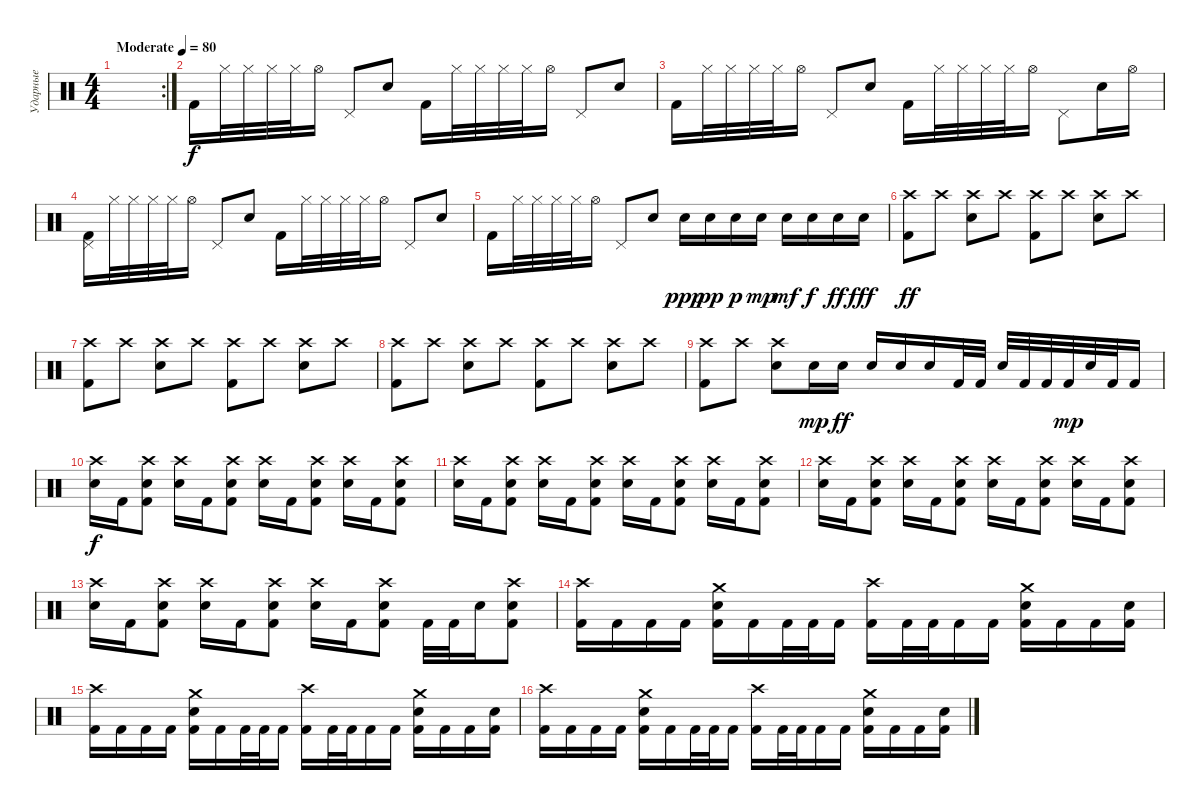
\track ("Ударные" "Ударные") {instrument percussion}
\staff {score}
\articulation defaults
\rc 2
\ts (4 4)
\tempo (80 "Moderate")
\clef neutral
\ks c
|
"Kick (hit) 2".16 "Hi-Hat (closed)".32 "Hi-Hat (closed)".32 "Hi-Hat (closed)".32 "Hi-Hat (closed)".32 "Hi-Hat (open)".16 "Pedal Hi-Hat (hit)".8 "Electric Snare (hit)".8 "Kick (hit) 2".16 "Hi-Hat (closed)".32 "Hi-Hat (closed)".32 "Hi-Hat (closed)".32 "Hi-Hat (closed)".32 "Hi-Hat (open)".16 "Pedal Hi-Hat (hit)".8 "Electric Snare (hit)".8 |
"Kick (hit) 2".16 "Hi-Hat (closed)".32 "Hi-Hat (closed)".32 "Hi-Hat (closed)".32 "Hi-Hat (closed)".32 "Hi-Hat (open)".16 "Pedal Hi-Hat (hit)".8 "Electric Snare (hit)".8 "Kick (hit) 2".16 "Hi-Hat (closed)".32 "Hi-Hat (closed)".32 "Hi-Hat (closed)".32 "Hi-Hat (closed)".32 "Hi-Hat (open)".16 "Pedal Hi-Hat (hit)".8 "Electric Snare (hit)".16 "Hi-Hat (open)".16 |
("Kick (hit) 2" "Pedal Hi-Hat (hit)").16 "Hi-Hat (closed)".32 "Hi-Hat (closed)".32 "Hi-Hat (closed)".32 "Hi-Hat (closed)".32 "Hi-Hat (open)".16 "Pedal Hi-Hat (hit)".8 "Electric Snare (hit)".8 "Kick (hit) 2".16 "Hi-Hat (closed)".32 "Hi-Hat (closed)".32 "Hi-Hat (closed)".32 "Hi-Hat (closed)".32 "Hi-Hat (open)".16 "Pedal Hi-Hat (hit)".8 "Electric Snare (hit)".8 |
"Kick (hit) 2".16 "Hi-Hat (closed)".32 "Hi-Hat (closed)".32 "Hi-Hat (closed)".32 "Hi-Hat (closed)".32 "Hi-Hat (open)".16 "Pedal Hi-Hat (hit)".8 "Electric Snare (hit)".8 "Snare (hit) 2".16{dy ppp} "Snare (hit) 2".16{dy pp} "Snare (hit) 2".16{dy p} "Snare (hit) 2".16{dy mp} "Snare (hit) 2".16{dy mf} "Snare (hit) 2".16{dy f} "Snare (hit) 2".16{dy ff} "Snare (hit) 2".16{dy fff} |
("Crash high (hit)" "Kick (hit) 2").8{dy ff} "Crash high (hit)".8 ("Crash high (hit)" "Electric Snare (hit)").8 "Crash high (hit)".8 ("Crash high (hit)" "Kick (hit) 2").8 "Crash high (hit)".8 ("Crash high (hit)" "Electric Snare (hit)").8 "Crash high (hit)".8 |
("Crash high (hit)" "Kick (hit) 2").8 "Crash high (hit)".8 ("Crash high (hit)" "Electric Snare (hit)").8 "Crash high (hit)".8 ("Crash high (hit)" "Kick (hit) 2").8 "Crash high (hit)".8 ("Crash high (hit)" "Electric Snare (hit)").8 "Crash high (hit)".8 |
("Crash high (hit)" "Kick (hit) 2").8 "Crash high (hit)".8 ("Crash high (hit)" "Electric Snare (hit)").8 "Crash high (hit)".8 ("Crash high (hit)" "Kick (hit) 2").8 "Crash high (hit)".8 ("Crash high (hit)" "Electric Snare (hit)").8 "Crash high (hit)".8 |
("Crash high (hit)" "Kick (hit) 2").8 "Crash high (hit)".8 ("Crash high (hit)" "Electric Snare (hit)").8 "Electric Snare (hit)".16{dy mp} "Electric Snare (hit)".16{dy ff} "Electric Snare (hit)".16 "Electric Snare (hit)".16 "Electric Snare (hit)".16 "Kick (hit) 2".32 "Kick (hit) 2".32 "Electric Snare (hit)".32 "Kick (hit) 2".32 "Kick (hit) 2".32 "Kick (hit) 2".32{dy mp} "Electric Snare (hit)".32 "Kick (hit) 2".32 "Kick (hit) 2".16 |
("Crash high (hit)" "Electric Snare (hit)").16{dy f} "Kick (hit) 2".16 ("Kick (hit) 2" "Crash high (hit)" "Electric Snare (hit)").8 ("Crash high (hit)" "Electric Snare (hit)").16 "Kick (hit) 2".16 ("Kick (hit) 2" "Crash high (hit)" "Electric Snare (hit)").8 ("Crash high (hit)" "Electric Snare (hit)").16 "Kick (hit) 2".16 ("Kick (hit) 2" "Crash high (hit)" "Electric Snare (hit)").8 ("Crash high (hit)" "Electric Snare (hit)").16 "Kick (hit) 2".16 ("Kick (hit) 2" "Crash high (hit)" "Electric Snare (hit)").8 |
("Crash high (hit)" "Electric Snare (hit)").16 "Kick (hit) 2".16 ("Kick (hit) 2" "Crash high (hit)" "Electric Snare (hit)").8 ("Crash high (hit)" "Electric Snare (hit)").16 "Kick (hit) 2".16 ("Kick (hit) 2" "Crash high (hit)" "Electric Snare (hit)").8 ("Crash high (hit)" "Electric Snare (hit)").16 "Kick (hit) 2".16 ("Kick (hit) 2" "Crash high (hit)" "Electric Snare (hit)").8 ("Crash high (hit)" "Electric Snare (hit)").16 "Kick (hit) 2".16 ("Kick (hit) 2" "Crash high (hit)" "Electric Snare (hit)").8 |
("Crash high (hit)" "Electric Snare (hit)").16 "Kick (hit) 2".16 ("Kick (hit) 2" "Crash high (hit)" "Electric Snare (hit)").8 ("Crash high (hit)" "Electric Snare (hit)").16 "Kick (hit) 2".16 ("Kick (hit) 2" "Crash high (hit)" "Electric Snare (hit)").8 ("Crash high (hit)" "Electric Snare (hit)").16 "Kick (hit) 2".16 ("Kick (hit) 2" "Crash high (hit)" "Electric Snare (hit)").8 ("Crash high (hit)" "Electric Snare (hit)").16 "Kick (hit) 2".16 ("Kick (hit) 2" "Crash high (hit)" "Electric Snare (hit)").8 |
("Crash high (hit)" "Electric Snare (hit)").16 "Kick (hit) 2".16 ("Kick (hit) 2" "Crash high (hit)" "Electric Snare (hit)").8 ("Crash high (hit)" "Electric Snare (hit)").16 "Kick (hit) 2".16 ("Kick (hit) 2" "Crash high (hit)" "Electric Snare (hit)").8 ("Crash high (hit)" "Electric Snare (hit)").16 "Kick (hit) 2".16 ("Kick (hit) 2" "Crash high (hit)" "Electric Snare (hit)").8 "Kick (hit) 2".32 "Kick (hit) 2".32 "Electric Snare (hit)".16 ("Kick (hit) 2" "Crash high (hit)" "Electric Snare (hit)").8 |
("Kick (hit) 2" "Crash high (hit)").16{balance 16} "Kick (hit) 2".16{balance 8} "Kick (hit) 2".16 "Kick (hit) 2".16 ("Kick (hit) 2" "Crash medium (hit)" "Electric Snare (hit)").16{balance 0} "Kick (hit) 2".16 "Kick (hit) 2".32{balance 0} "Kick (hit) 2".32 "Kick (hit) 2".16 ("Kick (hit) 2" "Crash high (hit)").16{balance 16} "Kick (hit) 2".32{balance 8} "Kick (hit) 2".32 "Kick (hit) 2".16 "Kick (hit) 2".16 ("Kick (hit) 2" "Crash medium (hit)" "Electric Snare (hit)").16{balance 0} "Kick (hit) 2".16{balance 8} "Kick (hit) 2".16 ("Kick (hit) 2" "Electric Snare (hit)").16 |
("Kick (hit) 2" "Crash high (hit)").16{balance 16} "Kick (hit) 2".16{balance 8} "Kick (hit) 2".16 "Kick (hit) 2".16 ("Kick (hit) 2" "Crash medium (hit)" "Electric Snare (hit)").16{balance 0} "Kick (hit) 2".16 "Kick (hit) 2".32{balance 0} "Kick (hit) 2".32 "Kick (hit) 2".16 ("Kick (hit) 2" "Crash high (hit)").16{balance 16} "Kick (hit) 2".32{balance 8} "Kick (hit) 2".32 "Kick (hit) 2".16 "Kick (hit) 2".16 ("Kick (hit) 2" "Crash medium (hit)" "Electric Snare (hit)").16{balance 0} "Kick (hit) 2".16{balance 8} "Kick (hit) 2".16 ("Kick (hit) 2" "Electric Snare (hit)").16 |
("Kick (hit) 2" "Crash high (hit)").16{balance 16} "Kick (hit) 2".16{balance 8} "Kick (hit) 2".16 "Kick (hit) 2".16 ("Kick (hit) 2" "Crash medium (hit)" "Electric Snare (hit)").16{balance 0} "Kick (hit) 2".16 "Kick (hit) 2".32{balance 0} "Kick (hit) 2".32 "Kick (hit) 2".16 ("Kick (hit) 2" "Crash high (hit)").16{balance 16} "Kick (hit) 2".32{balance 8} "Kick (hit) 2".32 "Kick (hit) 2".16 "Kick (hit) 2".16 ("Kick (hit) 2" "Crash medium (hit)" "Electric Snare (hit)").16{balance 0} "Kick (hit) 2".16{balance 8} "Kick (hit) 2".16 ("Kick (hit) 2" "Electric Snare (hit)").16
